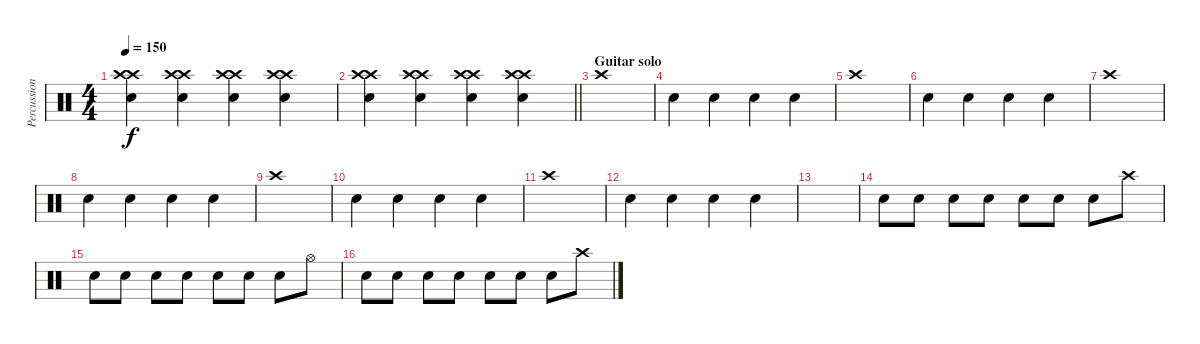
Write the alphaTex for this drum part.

\track ("Percussion" "Percussion") {instrument percussion}
\staff {score}
\articulation defaults
\ts (4 4)
\tempo 150
\clef neutral
\ks c
("Crash high (hit)" "Crash high (hit)" "Electric Snare (hit)").4{dy f} ("Crash high (hit)" "Crash high (hit)" "Electric Snare (hit)").4 ("Crash high (hit)" "Crash high (hit)" "Electric Snare (hit)").4 ("Crash high (hit)" "Crash high (hit)" "Electric Snare (hit)").4 |
\barLineRight lightlight
("Crash high (hit)" "Crash high (hit)" "Electric Snare (hit)").4 ("Crash high (hit)" "Crash high (hit)" "Electric Snare (hit)").4 ("Crash high (hit)" "Crash high (hit)" "Electric Snare (hit)").4 ("Crash high (hit)" "Crash high (hit)" "Electric Snare (hit)").4 |
\section ("" "Guitar solo")
"Crash high (hit)".1 |
"Electric Snare (hit)".4 "Electric Snare (hit)".4 "Electric Snare (hit)".4 "Electric Snare (hit)".4 |
"Crash high (hit)".1 |
"Snare (hit) 2".4 "Snare (hit) 2".4 "Snare (hit) 2".4 "Snare (hit) 2".4 |
"Crash high (hit)".1 |
"Electric Snare (hit)".4 "Electric Snare (hit)".4 "Electric Snare (hit)".4 "Electric Snare (hit)".4 |
"Crash high (hit)".1 |
"Snare (hit) 2".4 "Snare (hit) 2".4 "Snare (hit) 2".4 "Snare (hit) 2".4 |
"Crash high (hit)".1 |
"Electric Snare (hit)".4 "Electric Snare (hit)".4 "Electric Snare (hit)".4 "Electric Snare (hit)".4 |
|
"Snare (hit) 2".8 "Snare (hit) 2".8 "Snare (hit) 2".8 "Snare (hit) 2".8 "Snare (hit) 2".8 "Snare (hit) 2".8 "Snare (hit) 2".8 "Crash high (hit)".8 |
"Snare (hit) 2".8 "Snare (hit) 2".8 "Snare (hit) 2".8 "Snare (hit) 2".8 "Snare (hit) 2".8 "Snare (hit) 2".8 "Snare (hit) 2".8 "Hi-Hat (open)".8 |
"Snare (hit) 2".8 "Snare (hit) 2".8 "Snare (hit) 2".8 "Snare (hit) 2".8 "Snare (hit) 2".8 "Snare (hit) 2".8 "Snare (hit) 2".8 "Crash high (hit)".8
